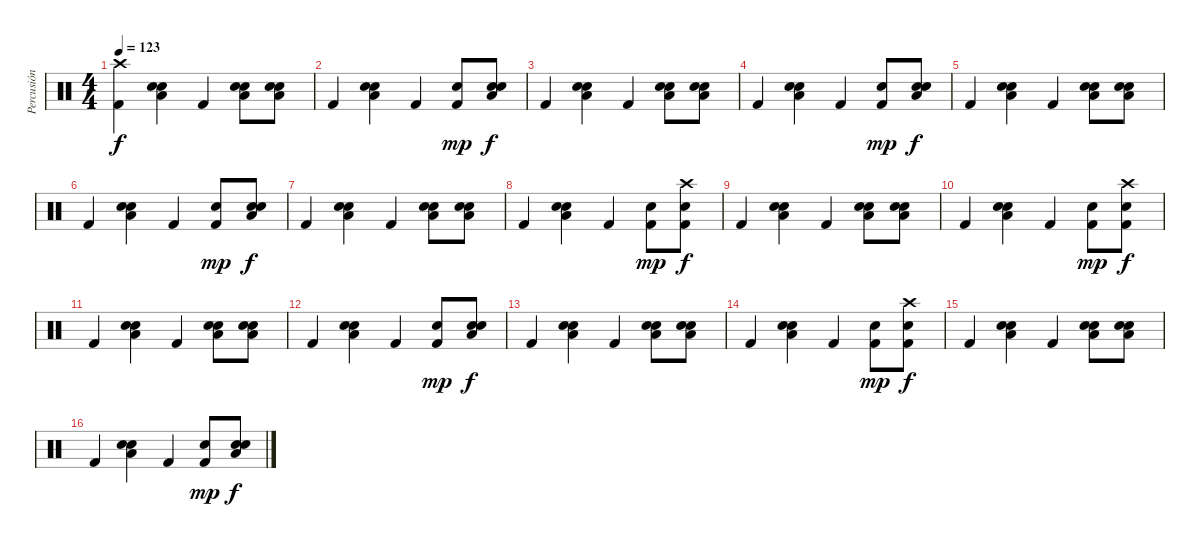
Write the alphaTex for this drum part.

\track ("Percusión" "Percusión") {instrument percussion}
\staff {score}
\articulation defaults
\ts (4 4)
\tempo 123
\clef neutral
\ks c
("Crash high (hit)" "Kick (hit) 2").4{dy f} ("Snare (hit) 2" "Low Tom (hit)" "Hand Clap (hit)").4 "Kick (hit) 2".4 ("Snare (hit) 2" "Low Tom (hit)" "Hand Clap (hit)").8 ("Snare (hit) 2" "Low Tom (hit)" "Hand Clap (hit)").8 |
"Kick (hit) 2".4 ("Snare (hit) 2" "Low Tom (hit)" "Hand Clap (hit)").4 "Kick (hit) 2".4 ("Kick (hit) 2" "Hand Clap (hit)").8{dy mp} ("Snare (hit) 2" "Low Tom (hit)" "Hand Clap (hit)").8{dy f} |
"Kick (hit) 2".4 ("Snare (hit) 2" "Low Tom (hit)" "Hand Clap (hit)").4 "Kick (hit) 2".4 ("Snare (hit) 2" "Low Tom (hit)" "Hand Clap (hit)").8 ("Snare (hit) 2" "Low Tom (hit)" "Hand Clap (hit)").8 |
"Kick (hit) 2".4 ("Snare (hit) 2" "Low Tom (hit)" "Hand Clap (hit)").4 "Kick (hit) 2".4 ("Kick (hit) 2" "Hand Clap (hit)").8{dy mp} ("Snare (hit) 2" "Low Tom (hit)" "Hand Clap (hit)").8{dy f} |
"Kick (hit) 2".4 ("Snare (hit) 2" "Low Tom (hit)" "Hand Clap (hit)").4 "Kick (hit) 2".4 ("Snare (hit) 2" "Low Tom (hit)" "Hand Clap (hit)").8 ("Snare (hit) 2" "Low Tom (hit)" "Hand Clap (hit)").8 |
"Kick (hit) 2".4 ("Snare (hit) 2" "Low Tom (hit)" "Hand Clap (hit)").4 "Kick (hit) 2".4 ("Kick (hit) 2" "Hand Clap (hit)").8{dy mp} ("Snare (hit) 2" "Low Tom (hit)" "Hand Clap (hit)").8{dy f} |
"Kick (hit) 2".4 ("Snare (hit) 2" "Low Tom (hit)" "Hand Clap (hit)").4 "Kick (hit) 2".4 ("Snare (hit) 2" "Low Tom (hit)" "Hand Clap (hit)").8 ("Snare (hit) 2" "Low Tom (hit)" "Hand Clap (hit)").8 |
"Kick (hit) 2".4 ("Snare (hit) 2" "Low Tom (hit)" "Hand Clap (hit)").4 "Kick (hit) 2".4 ("Kick (hit) 2" "Hand Clap (hit)").8{dy mp} ("Crash high (hit)" "Kick (hit) 2" "Hand Clap (hit)").8{dy f} |
"Kick (hit) 2".4 ("Snare (hit) 2" "Low Tom (hit)" "Hand Clap (hit)").4 "Kick (hit) 2".4 ("Snare (hit) 2" "Low Tom (hit)" "Hand Clap (hit)").8 ("Snare (hit) 2" "Low Tom (hit)" "Hand Clap (hit)").8 |
"Kick (hit) 2".4 ("Snare (hit) 2" "Low Tom (hit)" "Hand Clap (hit)").4 "Kick (hit) 2".4 ("Kick (hit) 2" "Hand Clap (hit)").8{dy mp} ("Crash high (hit)" "Kick (hit) 2" "Hand Clap (hit)").8{dy f} |
"Kick (hit) 2".4 ("Snare (hit) 2" "Low Tom (hit)" "Hand Clap (hit)").4 "Kick (hit) 2".4 ("Snare (hit) 2" "Low Tom (hit)" "Hand Clap (hit)").8 ("Snare (hit) 2" "Low Tom (hit)" "Hand Clap (hit)").8 |
"Kick (hit) 2".4 ("Snare (hit) 2" "Low Tom (hit)" "Hand Clap (hit)").4 "Kick (hit) 2".4 ("Kick (hit) 2" "Hand Clap (hit)").8{dy mp} ("Snare (hit) 2" "Low Tom (hit)" "Hand Clap (hit)").8{dy f} |
"Kick (hit) 2".4 ("Snare (hit) 2" "Low Tom (hit)" "Hand Clap (hit)").4 "Kick (hit) 2".4 ("Snare (hit) 2" "Low Tom (hit)" "Hand Clap (hit)").8 ("Snare (hit) 2" "Low Tom (hit)" "Hand Clap (hit)").8 |
"Kick (hit) 2".4 ("Snare (hit) 2" "Low Tom (hit)" "Hand Clap (hit)").4 "Kick (hit) 2".4 ("Kick (hit) 2" "Hand Clap (hit)").8{dy mp} ("Crash high (hit)" "Kick (hit) 2" "Hand Clap (hit)").8{dy f} |
"Kick (hit) 2".4 ("Snare (hit) 2" "Low Tom (hit)" "Hand Clap (hit)").4 "Kick (hit) 2".4 ("Snare (hit) 2" "Low Tom (hit)" "Hand Clap (hit)").8 ("Snare (hit) 2" "Low Tom (hit)" "Hand Clap (hit)").8 |
"Kick (hit) 2".4 ("Snare (hit) 2" "Low Tom (hit)" "Hand Clap (hit)").4 "Kick (hit) 2".4 ("Kick (hit) 2" "Hand Clap (hit)").8{dy mp} ("Snare (hit) 2" "Low Tom (hit)" "Hand Clap (hit)").8{dy f}
